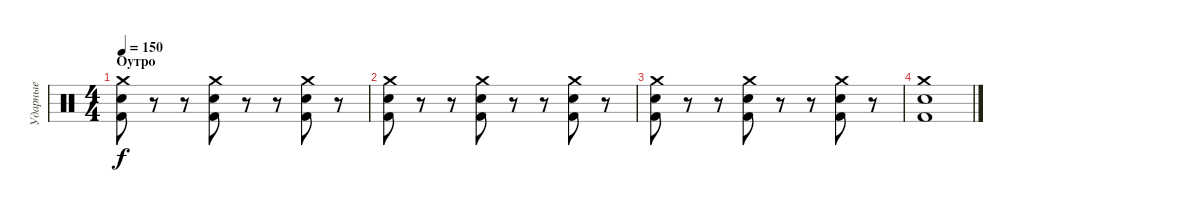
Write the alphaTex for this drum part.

\track ("Ударные" "Ударные") {instrument percussion}
\staff {score}
\articulation defaults
\ts (4 4)
\section ("" "Оутро")
\tempo 150
\clef neutral
\ks c
("Crash medium (hit)" "Snare (hit) 2" "Kick (hit) 2").8{dy f} r.8 r.8 ("Crash medium (hit)" "Snare (hit) 2" "Kick (hit) 2").8 r.8 r.8 ("Crash medium (hit)" "Snare (hit) 2" "Kick (hit) 2").8 r.8 |
("Crash medium (hit)" "Snare (hit) 2" "Kick (hit) 2").8 r.8 r.8 ("Crash medium (hit)" "Snare (hit) 2" "Kick (hit) 2").8 r.8 r.8 ("Crash medium (hit)" "Snare (hit) 2" "Kick (hit) 2").8 r.8 |
("Crash medium (hit)" "Snare (hit) 2" "Kick (hit) 2").8 r.8 r.8 ("Crash medium (hit)" "Snare (hit) 2" "Kick (hit) 2").8 r.8 r.8 ("Crash medium (hit)" "Snare (hit) 2" "Kick (hit) 2").8 r.8 |
("Crash medium (hit)" "Snare (hit) 2" "Kick (hit) 2").1
